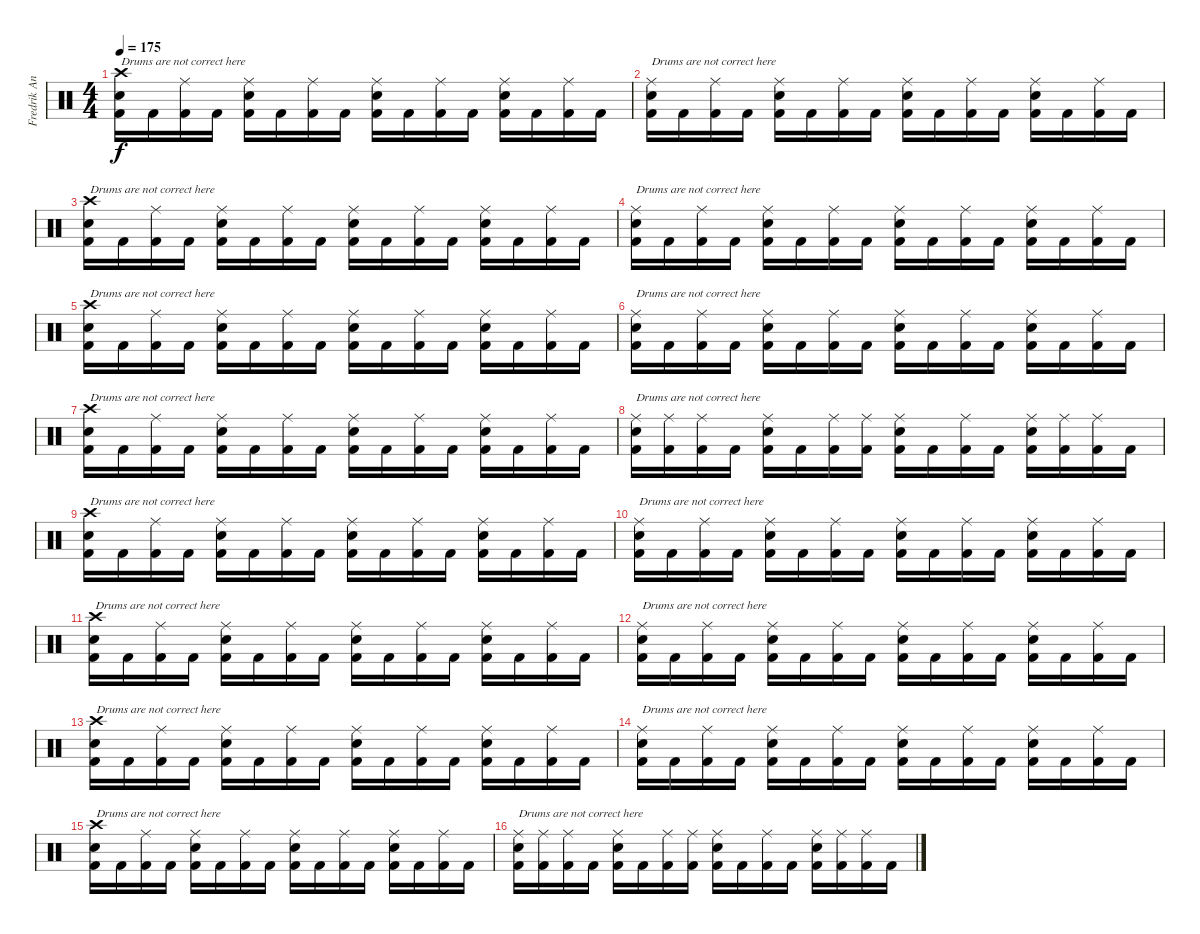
\track ("Fredrik Andersson" "Fredrik An") {instrument percussion}
\staff {score}
\articulation defaults
\ts (4 4)
\tempo 175
\clef neutral
\ks c
("Crash high (hit)" "Electric Snare (hit)" "Kick (hit) 2").16{txt "Drums are not correct here" dy f} "Kick (hit) 2".16 ("Ride (middle)" "Kick (hit) 2").16 "Kick (hit) 2".16 ("Ride (middle)" "Electric Snare (hit)" "Kick (hit) 2").16 "Kick (hit) 2".16 ("Ride (middle)" "Kick (hit) 2").16 "Kick (hit) 2".16 ("Ride (middle)" "Electric Snare (hit)" "Kick (hit) 2").16 "Kick (hit) 2".16 ("Ride (middle)" "Kick (hit) 2").16 "Kick (hit) 2".16 ("Ride (middle)" "Electric Snare (hit)" "Kick (hit) 2").16 "Kick (hit) 2".16 ("Ride (middle)" "Kick (hit) 2").16 "Kick (hit) 2".16 |
("Ride (middle)" "Electric Snare (hit)" "Kick (hit) 2").16{txt "Drums are not correct here"} "Kick (hit) 2".16 ("Ride (middle)" "Kick (hit) 2").16 "Kick (hit) 2".16 ("Ride (middle)" "Electric Snare (hit)" "Kick (hit) 2").16 "Kick (hit) 2".16 ("Ride (middle)" "Kick (hit) 2").16 "Kick (hit) 2".16 ("Ride (middle)" "Electric Snare (hit)" "Kick (hit) 2").16 "Kick (hit) 2".16 ("Ride (middle)" "Kick (hit) 2").16 "Kick (hit) 2".16 ("Ride (middle)" "Electric Snare (hit)" "Kick (hit) 2").16 "Kick (hit) 2".16 ("Ride (middle)" "Kick (hit) 2").16 "Kick (hit) 2".16 |
("Crash high (hit)" "Electric Snare (hit)" "Kick (hit) 2").16{txt "Drums are not correct here"} "Kick (hit) 2".16 ("Ride (middle)" "Kick (hit) 2").16 "Kick (hit) 2".16 ("Ride (middle)" "Electric Snare (hit)" "Kick (hit) 2").16 "Kick (hit) 2".16 ("Ride (middle)" "Kick (hit) 2").16 "Kick (hit) 2".16 ("Ride (middle)" "Electric Snare (hit)" "Kick (hit) 2").16 "Kick (hit) 2".16 ("Ride (middle)" "Kick (hit) 2").16 "Kick (hit) 2".16 ("Ride (middle)" "Electric Snare (hit)" "Kick (hit) 2").16 "Kick (hit) 2".16 ("Ride (middle)" "Kick (hit) 2").16 "Kick (hit) 2".16 |
("Ride (middle)" "Electric Snare (hit)" "Kick (hit) 2").16{txt "Drums are not correct here"} "Kick (hit) 2".16 ("Ride (middle)" "Kick (hit) 2").16 "Kick (hit) 2".16 ("Ride (middle)" "Electric Snare (hit)" "Kick (hit) 2").16 "Kick (hit) 2".16 ("Ride (middle)" "Kick (hit) 2").16 "Kick (hit) 2".16 ("Ride (middle)" "Electric Snare (hit)" "Kick (hit) 2").16 "Kick (hit) 2".16 ("Ride (middle)" "Kick (hit) 2").16 "Kick (hit) 2".16 ("Ride (middle)" "Electric Snare (hit)" "Kick (hit) 2").16 "Kick (hit) 2".16 ("Ride (middle)" "Kick (hit) 2").16 "Kick (hit) 2".16 |
("Crash high (hit)" "Electric Snare (hit)" "Kick (hit) 2").16{txt "Drums are not correct here"} "Kick (hit) 2".16 ("Ride (middle)" "Kick (hit) 2").16 "Kick (hit) 2".16 ("Ride (middle)" "Electric Snare (hit)" "Kick (hit) 2").16 "Kick (hit) 2".16 ("Ride (middle)" "Kick (hit) 2").16 "Kick (hit) 2".16 ("Ride (middle)" "Electric Snare (hit)" "Kick (hit) 2").16 "Kick (hit) 2".16 ("Ride (middle)" "Kick (hit) 2").16 "Kick (hit) 2".16 ("Ride (middle)" "Electric Snare (hit)" "Kick (hit) 2").16 "Kick (hit) 2".16 ("Ride (middle)" "Kick (hit) 2").16 "Kick (hit) 2".16 |
("Ride (middle)" "Electric Snare (hit)" "Kick (hit) 2").16{txt "Drums are not correct here"} "Kick (hit) 2".16 ("Ride (middle)" "Kick (hit) 2").16 "Kick (hit) 2".16 ("Ride (middle)" "Electric Snare (hit)" "Kick (hit) 2").16 "Kick (hit) 2".16 ("Ride (middle)" "Kick (hit) 2").16 "Kick (hit) 2".16 ("Ride (middle)" "Electric Snare (hit)" "Kick (hit) 2").16 "Kick (hit) 2".16 ("Ride (middle)" "Kick (hit) 2").16 "Kick (hit) 2".16 ("Ride (middle)" "Electric Snare (hit)" "Kick (hit) 2").16 "Kick (hit) 2".16 ("Ride (middle)" "Kick (hit) 2").16 "Kick (hit) 2".16 |
("Crash high (hit)" "Electric Snare (hit)" "Kick (hit) 2").16{txt "Drums are not correct here"} "Kick (hit) 2".16 ("Ride (middle)" "Kick (hit) 2").16 "Kick (hit) 2".16 ("Ride (middle)" "Electric Snare (hit)" "Kick (hit) 2").16 "Kick (hit) 2".16 ("Ride (middle)" "Kick (hit) 2").16 "Kick (hit) 2".16 ("Ride (middle)" "Electric Snare (hit)" "Kick (hit) 2").16 "Kick (hit) 2".16 ("Ride (middle)" "Kick (hit) 2").16 "Kick (hit) 2".16 ("Ride (middle)" "Electric Snare (hit)" "Kick (hit) 2").16 "Kick (hit) 2".16 ("Ride (middle)" "Kick (hit) 2").16 "Kick (hit) 2".16 |
("Ride (middle)" "Electric Snare (hit)" "Kick (hit) 2").16{txt "Drums are not correct here"} ("Ride (middle)" "Kick (hit) 2").16 ("Ride (middle)" "Kick (hit) 2").16 "Kick (hit) 2".16 ("Ride (middle)" "Electric Snare (hit)" "Kick (hit) 2").16 "Kick (hit) 2".16 ("Ride (middle)" "Kick (hit) 2").16 ("Ride (middle)" "Kick (hit) 2").16 ("Ride (middle)" "Electric Snare (hit)" "Kick (hit) 2").16 "Kick (hit) 2".16 ("Ride (middle)" "Kick (hit) 2").16 "Kick (hit) 2".16 ("Ride (middle)" "Electric Snare (hit)" "Kick (hit) 2").16 ("Ride (middle)" "Kick (hit) 2").16 ("Ride (middle)" "Kick (hit) 2").16 "Kick (hit) 2".16 |
("Crash high (hit)" "Electric Snare (hit)" "Kick (hit) 2").16{txt "Drums are not correct here"} "Kick (hit) 2".16 ("Ride (middle)" "Kick (hit) 2").16 "Kick (hit) 2".16 ("Ride (middle)" "Electric Snare (hit)" "Kick (hit) 2").16 "Kick (hit) 2".16 ("Ride (middle)" "Kick (hit) 2").16 "Kick (hit) 2".16 ("Ride (middle)" "Electric Snare (hit)" "Kick (hit) 2").16 "Kick (hit) 2".16 ("Ride (middle)" "Kick (hit) 2").16 "Kick (hit) 2".16 ("Ride (middle)" "Electric Snare (hit)" "Kick (hit) 2").16 "Kick (hit) 2".16 ("Ride (middle)" "Kick (hit) 2").16 "Kick (hit) 2".16 |
("Ride (middle)" "Electric Snare (hit)" "Kick (hit) 2").16{txt "Drums are not correct here"} "Kick (hit) 2".16 ("Ride (middle)" "Kick (hit) 2").16 "Kick (hit) 2".16 ("Ride (middle)" "Electric Snare (hit)" "Kick (hit) 2").16 "Kick (hit) 2".16 ("Ride (middle)" "Kick (hit) 2").16 "Kick (hit) 2".16 ("Ride (middle)" "Electric Snare (hit)" "Kick (hit) 2").16 "Kick (hit) 2".16 ("Ride (middle)" "Kick (hit) 2").16 "Kick (hit) 2".16 ("Ride (middle)" "Electric Snare (hit)" "Kick (hit) 2").16 "Kick (hit) 2".16 ("Ride (middle)" "Kick (hit) 2").16 "Kick (hit) 2".16 |
("Crash high (hit)" "Electric Snare (hit)" "Kick (hit) 2").16{txt "Drums are not correct here"} "Kick (hit) 2".16 ("Ride (middle)" "Kick (hit) 2").16 "Kick (hit) 2".16 ("Ride (middle)" "Electric Snare (hit)" "Kick (hit) 2").16 "Kick (hit) 2".16 ("Ride (middle)" "Kick (hit) 2").16 "Kick (hit) 2".16 ("Ride (middle)" "Electric Snare (hit)" "Kick (hit) 2").16 "Kick (hit) 2".16 ("Ride (middle)" "Kick (hit) 2").16 "Kick (hit) 2".16 ("Ride (middle)" "Electric Snare (hit)" "Kick (hit) 2").16 "Kick (hit) 2".16 ("Ride (middle)" "Kick (hit) 2").16 "Kick (hit) 2".16 |
("Ride (middle)" "Electric Snare (hit)" "Kick (hit) 2").16{txt "Drums are not correct here"} "Kick (hit) 2".16 ("Ride (middle)" "Kick (hit) 2").16 "Kick (hit) 2".16 ("Ride (middle)" "Electric Snare (hit)" "Kick (hit) 2").16 "Kick (hit) 2".16 ("Ride (middle)" "Kick (hit) 2").16 "Kick (hit) 2".16 ("Ride (middle)" "Electric Snare (hit)" "Kick (hit) 2").16 "Kick (hit) 2".16 ("Ride (middle)" "Kick (hit) 2").16 "Kick (hit) 2".16 ("Ride (middle)" "Electric Snare (hit)" "Kick (hit) 2").16 "Kick (hit) 2".16 ("Ride (middle)" "Kick (hit) 2").16 "Kick (hit) 2".16 |
("Crash high (hit)" "Electric Snare (hit)" "Kick (hit) 2").16{txt "Drums are not correct here"} "Kick (hit) 2".16 ("Ride (middle)" "Kick (hit) 2").16 "Kick (hit) 2".16 ("Ride (middle)" "Electric Snare (hit)" "Kick (hit) 2").16 "Kick (hit) 2".16 ("Ride (middle)" "Kick (hit) 2").16 "Kick (hit) 2".16 ("Ride (middle)" "Electric Snare (hit)" "Kick (hit) 2").16 "Kick (hit) 2".16 ("Ride (middle)" "Kick (hit) 2").16 "Kick (hit) 2".16 ("Ride (middle)" "Electric Snare (hit)" "Kick (hit) 2").16 "Kick (hit) 2".16 ("Ride (middle)" "Kick (hit) 2").16 "Kick (hit) 2".16 |
("Ride (middle)" "Electric Snare (hit)" "Kick (hit) 2").16{txt "Drums are not correct here"} "Kick (hit) 2".16 ("Ride (middle)" "Kick (hit) 2").16 "Kick (hit) 2".16 ("Ride (middle)" "Electric Snare (hit)" "Kick (hit) 2").16 "Kick (hit) 2".16 ("Ride (middle)" "Kick (hit) 2").16 "Kick (hit) 2".16 ("Ride (middle)" "Electric Snare (hit)" "Kick (hit) 2").16 "Kick (hit) 2".16 ("Ride (middle)" "Kick (hit) 2").16 "Kick (hit) 2".16 ("Ride (middle)" "Electric Snare (hit)" "Kick (hit) 2").16 "Kick (hit) 2".16 ("Ride (middle)" "Kick (hit) 2").16 "Kick (hit) 2".16 |
("Crash high (hit)" "Electric Snare (hit)" "Kick (hit) 2").16{txt "Drums are not correct here"} "Kick (hit) 2".16 ("Ride (middle)" "Kick (hit) 2").16 "Kick (hit) 2".16 ("Ride (middle)" "Electric Snare (hit)" "Kick (hit) 2").16 "Kick (hit) 2".16 ("Ride (middle)" "Kick (hit) 2").16 "Kick (hit) 2".16 ("Ride (middle)" "Electric Snare (hit)" "Kick (hit) 2").16 "Kick (hit) 2".16 ("Ride (middle)" "Kick (hit) 2").16 "Kick (hit) 2".16 ("Ride (middle)" "Electric Snare (hit)" "Kick (hit) 2").16 "Kick (hit) 2".16 ("Ride (middle)" "Kick (hit) 2").16 "Kick (hit) 2".16 |
("Ride (middle)" "Electric Snare (hit)" "Kick (hit) 2").16{txt "Drums are not correct here"} ("Ride (middle)" "Kick (hit) 2").16 ("Ride (middle)" "Kick (hit) 2").16 "Kick (hit) 2".16 ("Ride (middle)" "Electric Snare (hit)" "Kick (hit) 2").16 "Kick (hit) 2".16 ("Ride (middle)" "Kick (hit) 2").16 ("Ride (middle)" "Kick (hit) 2").16 ("Ride (middle)" "Electric Snare (hit)" "Kick (hit) 2").16 "Kick (hit) 2".16 ("Ride (middle)" "Kick (hit) 2").16 "Kick (hit) 2".16 ("Ride (middle)" "Electric Snare (hit)" "Kick (hit) 2").16 ("Ride (middle)" "Kick (hit) 2").16 ("Ride (middle)" "Kick (hit) 2").16 "Kick (hit) 2".16
